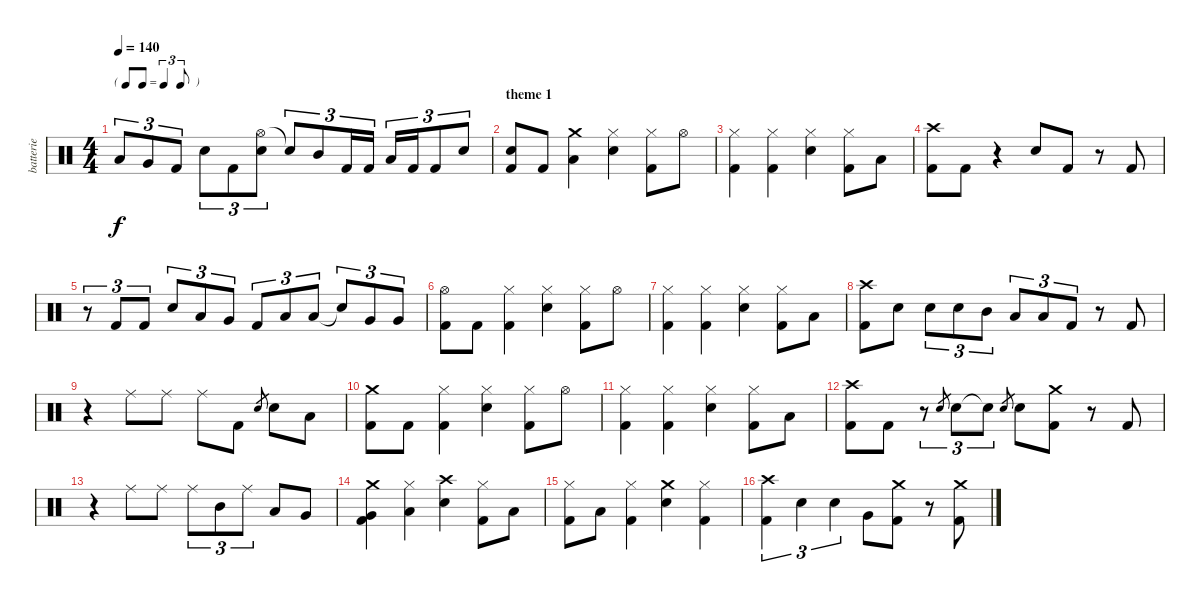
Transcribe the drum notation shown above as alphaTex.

\track ("batterie" "batterie") {instrument percussion}
\staff {score}
\articulation defaults
\ts (4 4)
\tf triplet8th
\tempo 140
\clef neutral
\ks c "Low Tom (hit)".8{tu (3 2) dy f} "Very Low Tom (hit)".8{tu (3 2)} "Kick (hit) 2".8{tu (3 2)} "Electric Snare (hit)".8{tu (3 2)} "Kick (hit) 2".8{tu (3 2)}
("Hi-Hat (open)" "Electric Snare (hit)").8{tu (3 2)} "Snare (hit)"{t}.8{tu (3 2)} "Mid Tom (hit)".8{tu (3 2)} "Kick (hit) 2".16{tu (3 2)} "Kick (hit) 2".16{tu (3 2)} "Low Tom (hit)".16{tu (3 2)} "Kick (hit) 2".16{tu (3 2)} "Kick (hit) 2".8{tu (3 2)} "Electric Snare (hit)".8{tu (3 2)} |
\section ("" "theme 1")
("Electric Snare (hit)" "Kick (hit) 2").8 "Kick (hit) 2".8 ("Crash medium (hit)" "Low Tom (hit)").4 ("Hi-Hat (closed)" "Electric Snare (hit)").4 ("Hi-Hat (closed)" "Kick (hit) 2").8 "Hi-Hat (open)".8 |
("Hi-Hat (closed)" "Kick (hit) 2").4 ("Hi-Hat (closed)" "Kick (hit) 2").4 ("Hi-Hat (closed)" "Electric Snare (hit)").4 ("Hi-Hat (closed)" "Kick (hit) 2").8 "Low Tom (hit)".8 |
("Crash high (hit)" "Kick (hit) 2").8 "Kick (hit) 2".8 r.4 "Electric Snare (hit)".8 "Kick (hit) 2".8 r.8 "Kick (hit) 2".8 |
r.8{tu (3 2)} "Kick (hit) 2".8{tu (3 2)} "Kick (hit) 2".8{tu (3 2)} "Electric Snare (hit)".8{tu (3 2)} "Low Tom (hit)".8{tu (3 2)} "Very Low Tom (hit)".8{tu (3 2)} "Kick (hit) 2".8{tu (3 2)} "Low Tom (hit)".8{tu (3 2)} "Low Tom (hit)".8{tu (3 2)} "Snare (hit)"{t}.8{tu (3 2)} "Very Low Tom (hit)".8{tu (3 2)} "Very Low Tom (hit)".8{tu (3 2)} |
("Hi-Hat (open)" "Kick (hit) 2").8 "Kick (hit) 2".8 ("Hi-Hat (closed)" "Kick (hit) 2").4 ("Hi-Hat (closed)" "Electric Snare (hit)").4 ("Hi-Hat (closed)" "Kick (hit) 2").8 "Hi-Hat (open)".8 |
("Hi-Hat (closed)" "Kick (hit) 2").4 ("Hi-Hat (closed)" "Kick (hit) 2").4 ("Hi-Hat (closed)" "Electric Snare (hit)").4 ("Hi-Hat (closed)" "Kick (hit) 2").8 "Low Tom (hit)".8 |
("Crash high (hit)" "Kick (hit) 2").8 "Electric Snare (hit)".8 "Electric Snare (hit)".8{tu (3 2)} "Electric Snare (hit)".8{tu (3 2)} "Mid Tom (hit)".8{tu (3 2)} "Low Tom (hit)".8{tu (3 2)} "Low Tom (hit)".8{tu (3 2)} "Kick (hit) 2".8{tu (3 2)} r.8 "Kick (hit) 2".8 |
r.4 "Ride (middle)".8 "Ride (middle)".8 "Ride (middle)".8 "Kick (hit) 2".8 "Electric Snare (hit)".8{gr} "Electric Snare (hit)".8 "Low Tom (hit)".8 |
("Crash medium (hit)" "Kick (hit) 2").8 "Kick (hit) 2".8 ("Hi-Hat (closed)" "Kick (hit) 2").4 ("Hi-Hat (closed)" "Electric Snare (hit)").4 ("Hi-Hat (closed)" "Kick (hit) 2").8 "Hi-Hat (open)".8 |
("Hi-Hat (closed)" "Kick (hit) 2").4 ("Hi-Hat (closed)" "Kick (hit) 2").4 ("Hi-Hat (closed)" "Electric Snare (hit)").4 ("Hi-Hat (closed)" "Kick (hit) 2").8 "Low Tom (hit)".8 |
("Crash high (hit)" "Kick (hit) 2").8 "Kick (hit) 2".8 r.8{tu (3 2)} "Electric Snare (hit)".8{gr} "Electric Snare (hit)".8{tu (3 2)} "Snare (hit)"{t}.8{tu (3 2)} "Electric Snare (hit)".8{gr} "Electric Snare (hit)".8 ("Crash medium (hit)" "Kick (hit) 2").8 r.8 "Kick (hit) 2".8 |
r.4 "Ride (middle)".8 "Ride (middle)".8 "Ride (middle)".8{tu (3 2)} "Mid Tom (hit)".8{tu (3 2)} "Ride (middle)".8{tu (3 2)} "Low Tom (hit)".8 "Very Low Tom (hit)".8 |
("Crash medium (hit)" "Very Low Tom (hit)" "Kick (hit) 2").4 ("Hi-Hat (closed)" "Low Tom (hit)").4 ("Crash high (hit)" "Electric Snare (hit)").4 ("Hi-Hat (closed)" "Kick (hit) 2").8 "Low Tom (hit)".8 |
("Hi-Hat (closed)" "Kick (hit) 2").8 "Low Tom (hit)".8 ("Hi-Hat (closed)" "Kick (hit) 2").4 ("Crash medium (hit)" "Electric Snare (hit)").4 ("Hi-Hat (closed)" "Kick (hit) 2").4 |
("Crash high (hit)" "Kick (hit) 2").4{tu (3 2)} "Electric Snare (hit)".4{tu (3 2)} "Electric Snare (hit)".4{tu (3 2)} "Very Low Tom (hit)".8 ("Crash medium (hit)" "Kick (hit) 2").8 r.8 ("Crash medium (hit)" "Kick (hit) 2").8
